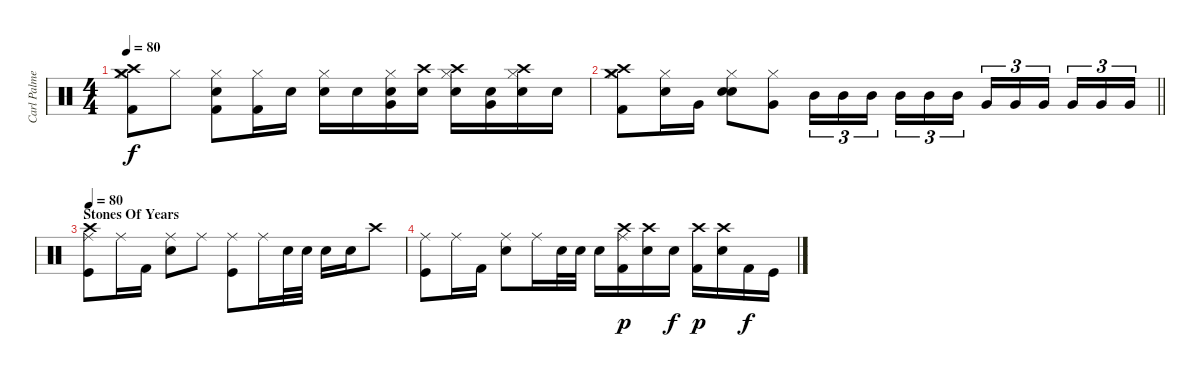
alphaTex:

\track ("Carl Palmer (Percussion)" "Carl Palme") {instrument percussion}
\staff {score}
\articulation defaults
\ts (4 4)
\tempo 80
\clef neutral
\ks c
("Hi-Hat (closed)" "Kick (hit) 2" "Crash high (hit)" "Crash medium (hit)").8{dy f} "Hi-Hat (closed)".8 ("Hi-Hat (closed)" "Kick (hit) 2" "Snare (hit) 2").8 ("Hi-Hat (closed)" "Kick (hit) 2").16 "Electric Snare (hit)".16 ("Hi-Hat (closed)" "Electric Snare (hit)").16 "Electric Snare (hit)".16 ("Hi-Hat (closed)" "Electric Snare (hit)" "Very Low Tom (hit)").16 ("Electric Snare (hit)" "Crash high (hit)").16 ("Hi-Hat (closed)" "Electric Snare (hit)" "Crash high (hit)").16 ("Electric Snare (hit)" "Very Low Tom (hit)").16 ("Hi-Hat (closed)" "Electric Snare (hit)" "Crash high (hit)").16 "Electric Snare (hit)".16 |
\barLineRight lightlight
("Hi-Hat (closed)" "Kick (hit) 2" "Crash high (hit)" "Crash medium (hit)").8 ("Hi-Hat (closed)" "Electric Snare (hit)").16 "Very Low Tom (hit)".16 ("Hi-Hat (closed)" "Electric Snare (hit)" "Snare (hit) 2").8 ("Hi-Hat (closed)" "Very Low Tom (hit)").8 "Mid Tom (hit)".16{tu (3 2)} "Mid Tom (hit)".16{tu (3 2)} "Mid Tom (hit)".16{tu (3 2) beam splitsecondary} "Mid Tom (hit)".16{tu (3 2)} "Mid Tom (hit)".16{tu (3 2)} "Mid Tom (hit)".16{tu (3 2)} "Very Low Tom (hit)".16{tu (3 2)} "Very Low Tom (hit)".16{tu (3 2)} "Very Low Tom (hit)".16{tu (3 2) beam splitsecondary} "Very Low Tom (hit)".16{tu (3 2)} "Very Low Tom (hit)".16{tu (3 2)} "Very Low Tom (hit)".16{tu (3 2)} |
\section ("" "Stones Of Years")
\tempo 80
("Ride (middle)" "Kick (hit)" "Crash high (hit)").8 "Ride (middle)".16 "Kick (hit) 2".16 ("Ride (middle)" "Electric Snare (hit)").8 "Ride (middle)".8 ("Ride (middle)" "Kick (hit)").8 "Ride (middle)".16 "Electric Snare (hit)".32 "Electric Snare (hit)".32 "Electric Snare (hit)".16 "Electric Snare (hit)".16 "Crash high (hit)".8 |
("Ride (middle)" "Kick (hit)").8 "Ride (middle)".16 "Kick (hit) 2".16 ("Ride (middle)" "Electric Snare (hit)").8 "Ride (middle)".16 "Electric Snare (hit)".32 "Electric Snare (hit)".32 "Electric Snare (hit)".16 ("Ride (middle)" "Kick (hit) 2" "Crash high (hit)").16{dy p} ("Electric Snare (hit)" "Crash high (hit)").16 "Electric Snare (hit)".16{dy f} ("Kick (hit) 2" "Crash high (hit)").16{dy p} ("Electric Snare (hit)" "Crash high (hit)").16 "Kick (hit) 2".16{dy f} "Kick (hit)".16
